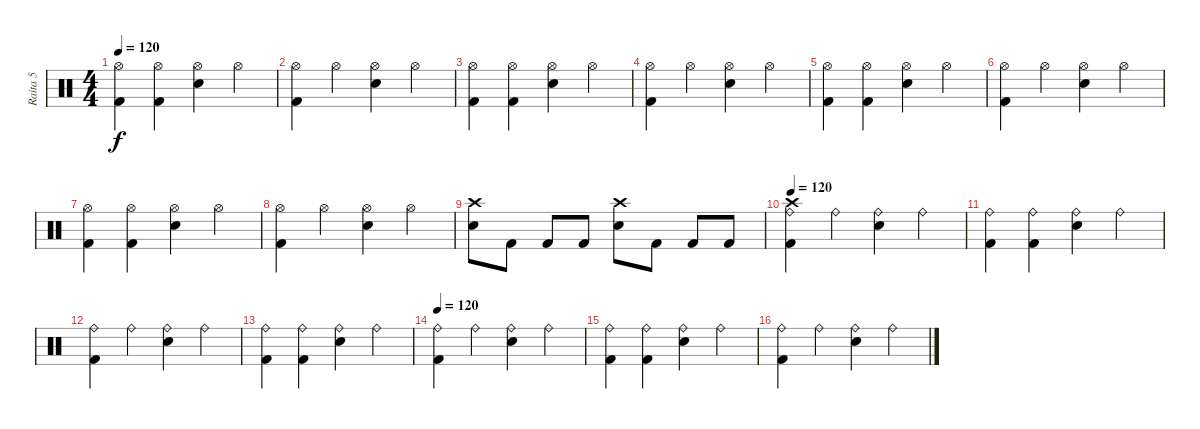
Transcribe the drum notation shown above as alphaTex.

\track ("Raita 5" "Raita 5") {instrument percussion}
\staff {score}
\articulation defaults
\ts (4 4)
\tempo 120
\clef neutral
\ks c
("Hi-Hat (open)" "Kick (hit) 2").4{dy f} ("Hi-Hat (open)" "Kick (hit) 2").4 ("Hi-Hat (open)" "Snare (hit) 2").4 "Hi-Hat (open)".4 |
("Hi-Hat (open)" "Kick (hit) 2").4 "Hi-Hat (open)".4 ("Hi-Hat (open)" "Snare (hit) 2").4 "Hi-Hat (open)".4 |
("Hi-Hat (open)" "Kick (hit) 2").4 ("Hi-Hat (open)" "Kick (hit) 2").4 ("Hi-Hat (open)" "Snare (hit) 2").4 "Hi-Hat (open)".4 |
("Hi-Hat (open)" "Kick (hit) 2").4 "Hi-Hat (open)".4 ("Hi-Hat (open)" "Snare (hit) 2").4 "Hi-Hat (open)".4 |
("Hi-Hat (open)" "Kick (hit) 2").4 ("Hi-Hat (open)" "Kick (hit) 2").4 ("Hi-Hat (open)" "Snare (hit) 2").4 "Hi-Hat (open)".4 |
("Hi-Hat (open)" "Kick (hit) 2").4 "Hi-Hat (open)".4 ("Hi-Hat (open)" "Snare (hit) 2").4 "Hi-Hat (open)".4 |
("Hi-Hat (open)" "Kick (hit) 2").4 ("Hi-Hat (open)" "Kick (hit) 2").4 ("Hi-Hat (open)" "Snare (hit) 2").4 "Hi-Hat (open)".4 |
("Hi-Hat (open)" "Kick (hit) 2").4 "Hi-Hat (open)".4 ("Hi-Hat (open)" "Snare (hit) 2").4 "Hi-Hat (open)".4 |
("Crash high (hit)" "Snare (hit) 2").8 "Kick (hit) 2".8 "Kick (hit) 2".8 "Kick (hit) 2".8 ("Crash high (hit)" "Snare (hit) 2").8 "Kick (hit) 2".8 "Kick (hit) 2".8 "Kick (hit) 2".8 |
\tempo 120
("Crash high (hit)" "Ride (bell)" "Kick (hit) 2").4 "Ride (bell)".4 ("Ride (bell)" "Snare (hit) 2").4 "Ride (bell)".4 |
("Ride (bell)" "Kick (hit) 2").4 ("Ride (bell)" "Kick (hit) 2").4 ("Ride (bell)" "Snare (hit) 2").4 "Ride (bell)".4 |
("Ride (bell)" "Kick (hit) 2").4 "Ride (bell)".4 ("Ride (bell)" "Snare (hit) 2").4 "Ride (bell)".4 |
("Ride (bell)" "Kick (hit) 2").4 ("Ride (bell)" "Kick (hit) 2").4 ("Ride (bell)" "Snare (hit) 2").4 "Ride (bell)".4 |
\tempo 120
("Ride (bell)" "Kick (hit) 2").4 "Ride (bell)".4 ("Ride (bell)" "Snare (hit) 2").4 "Ride (bell)".4 |
("Ride (bell)" "Kick (hit) 2").4 ("Ride (bell)" "Kick (hit) 2").4 ("Ride (bell)" "Snare (hit) 2").4 "Ride (bell)".4 |
("Ride (bell)" "Kick (hit) 2").4 "Ride (bell)".4 ("Ride (bell)" "Snare (hit) 2").4 "Ride (bell)".4
